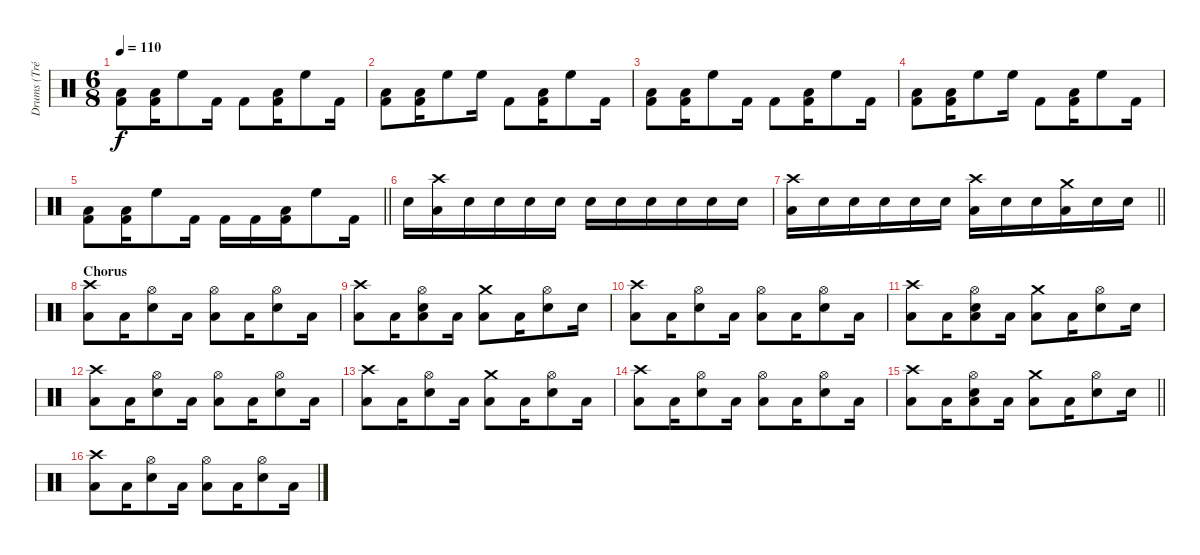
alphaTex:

\track ("Drums (Tré Cool)" "Drums (Tré") {instrument percussion}
\staff {score}
\articulation defaults
\ts (6 8)
\tempo 110
\clef neutral
\ks c
("Kick (hit) 2" "Low Floor Tom (hit)").8{dy f} ("Kick (hit) 2" "Low Floor Tom (hit)").16 "High Floor Tom (hit)".8 "Kick (hit) 2".16 "Kick (hit) 2".8 ("Kick (hit) 2" "Low Floor Tom (hit)").16 "High Floor Tom (hit)".8 "Kick (hit) 2".16 |
("Kick (hit) 2" "Low Floor Tom (hit)").8 ("Kick (hit) 2" "Low Floor Tom (hit)").16 "High Floor Tom (hit)".8 "High Floor Tom (hit)".16 "Kick (hit) 2".8 ("Kick (hit) 2" "Low Floor Tom (hit)").16 "High Floor Tom (hit)".8 "Kick (hit) 2".16 |
("Kick (hit) 2" "Low Floor Tom (hit)").8 ("Kick (hit) 2" "Low Floor Tom (hit)").16 "High Floor Tom (hit)".8 "Kick (hit) 2".16 "Kick (hit) 2".8 ("Kick (hit) 2" "Low Floor Tom (hit)").16 "High Floor Tom (hit)".8 "Kick (hit) 2".16 |
("Kick (hit) 2" "Low Floor Tom (hit)").8 ("Kick (hit) 2" "Low Floor Tom (hit)").16 "High Floor Tom (hit)".8 "High Floor Tom (hit)".16 "Kick (hit) 2".8 ("Kick (hit) 2" "Low Floor Tom (hit)").16 "High Floor Tom (hit)".8 "Kick (hit) 2".16 |
\barLineRight lightlight
("Kick (hit) 2" "Low Floor Tom (hit)").8 ("Kick (hit) 2" "Low Floor Tom (hit)").16 "High Floor Tom (hit)".8 "Kick (hit) 2".16 "Kick (hit) 2".16 "Kick (hit) 2".16 ("Kick (hit) 2" "Low Floor Tom (hit)").16 "High Floor Tom (hit)".8 "Kick (hit) 2".16 |
"Electric Snare (hit)".16 ("Crash high (hit)" "Low Floor Tom (hit)").16 "Electric Snare (hit)".16 "Electric Snare (hit)".16 "Electric Snare (hit)".16 "Electric Snare (hit)".16 "Electric Snare (hit)".16 "Electric Snare (hit)".16 "Electric Snare (hit)".16 "Electric Snare (hit)".16 "Electric Snare (hit)".16 "Electric Snare (hit)".16 |
\barLineRight lightlight
("Crash high (hit)" "Low Floor Tom (hit)").16 "Electric Snare (hit)".16 "Electric Snare (hit)".16 "Electric Snare (hit)".16 "Electric Snare (hit)".16 "Electric Snare (hit)".16 ("Crash high (hit)" "Low Floor Tom (hit)").16 "Electric Snare (hit)".16 "Electric Snare (hit)".16 ("Crash medium (hit)" "Low Floor Tom (hit)").16 "Electric Snare (hit)".16 "Electric Snare (hit)".16 |
\section ("" "Chorus")
("Crash high (hit)" "Low Floor Tom (hit)").8 "Low Floor Tom (hit)".16 ("Hi-Hat (open)" "Electric Snare (hit)").8 "Low Floor Tom (hit)".16 ("Hi-Hat (open)" "Low Floor Tom (hit)").8 "Low Floor Tom (hit)".16 ("Hi-Hat (open)" "Electric Snare (hit)").8 "Low Floor Tom (hit)".16 |
("Crash high (hit)" "Low Floor Tom (hit)").8 "Low Floor Tom (hit)".16 ("Hi-Hat (open)" "Electric Snare (hit)" "Low Floor Tom (hit)").8 "Low Floor Tom (hit)".16 ("Crash medium (hit)" "Low Floor Tom (hit)").8 "Low Floor Tom (hit)".16 ("Hi-Hat (open)" "Electric Snare (hit)").8 "Electric Snare (hit)".16 |
("Crash high (hit)" "Low Floor Tom (hit)").8 "Low Floor Tom (hit)".16 ("Hi-Hat (open)" "Electric Snare (hit)").8 "Low Floor Tom (hit)".16 ("Hi-Hat (open)" "Low Floor Tom (hit)").8 "Low Floor Tom (hit)".16 ("Hi-Hat (open)" "Electric Snare (hit)").8 "Low Floor Tom (hit)".16 |
("Crash high (hit)" "Low Floor Tom (hit)").8 "Low Floor Tom (hit)".16 ("Hi-Hat (open)" "Electric Snare (hit)" "Low Floor Tom (hit)").8 "Low Floor Tom (hit)".16 ("Crash medium (hit)" "Low Floor Tom (hit)").8 "Low Floor Tom (hit)".16 ("Hi-Hat (open)" "Electric Snare (hit)").8 "Electric Snare (hit)".16 |
("Crash high (hit)" "Low Floor Tom (hit)").8 "Low Floor Tom (hit)".16 ("Hi-Hat (open)" "Electric Snare (hit)").8 "Low Floor Tom (hit)".16 ("Hi-Hat (open)" "Low Floor Tom (hit)").8 "Low Floor Tom (hit)".16 ("Hi-Hat (open)" "Electric Snare (hit)").8 "Low Floor Tom (hit)".16 |
("Crash high (hit)" "Low Floor Tom (hit)").8 "Low Floor Tom (hit)".16 ("Hi-Hat (open)" "Electric Snare (hit)").8 "Low Floor Tom (hit)".16 ("Crash medium (hit)" "Low Floor Tom (hit)").8 "Low Floor Tom (hit)".16 ("Hi-Hat (open)" "Electric Snare (hit)").8 "Low Floor Tom (hit)".16 |
("Crash high (hit)" "Low Floor Tom (hit)").8 "Low Floor Tom (hit)".16 ("Hi-Hat (open)" "Electric Snare (hit)").8 "Low Floor Tom (hit)".16 ("Hi-Hat (open)" "Low Floor Tom (hit)").8 "Low Floor Tom (hit)".16 ("Hi-Hat (open)" "Electric Snare (hit)").8 "Low Floor Tom (hit)".16 |
\barLineRight lightlight
("Crash high (hit)" "Low Floor Tom (hit)").8 "Low Floor Tom (hit)".16 ("Hi-Hat (open)" "Electric Snare (hit)" "Low Floor Tom (hit)").8 "Low Floor Tom (hit)".16 ("Crash medium (hit)" "Low Floor Tom (hit)").8 "Low Floor Tom (hit)".16 ("Hi-Hat (open)" "Electric Snare (hit)").8 "Electric Snare (hit)".16 |
("Crash high (hit)" "Low Floor Tom (hit)").8 "Low Floor Tom (hit)".16 ("Hi-Hat (open)" "Electric Snare (hit)").8 "Low Floor Tom (hit)".16 ("Hi-Hat (open)" "Low Floor Tom (hit)").8 "Low Floor Tom (hit)".16 ("Hi-Hat (open)" "Electric Snare (hit)").8 "Low Floor Tom (hit)".16
